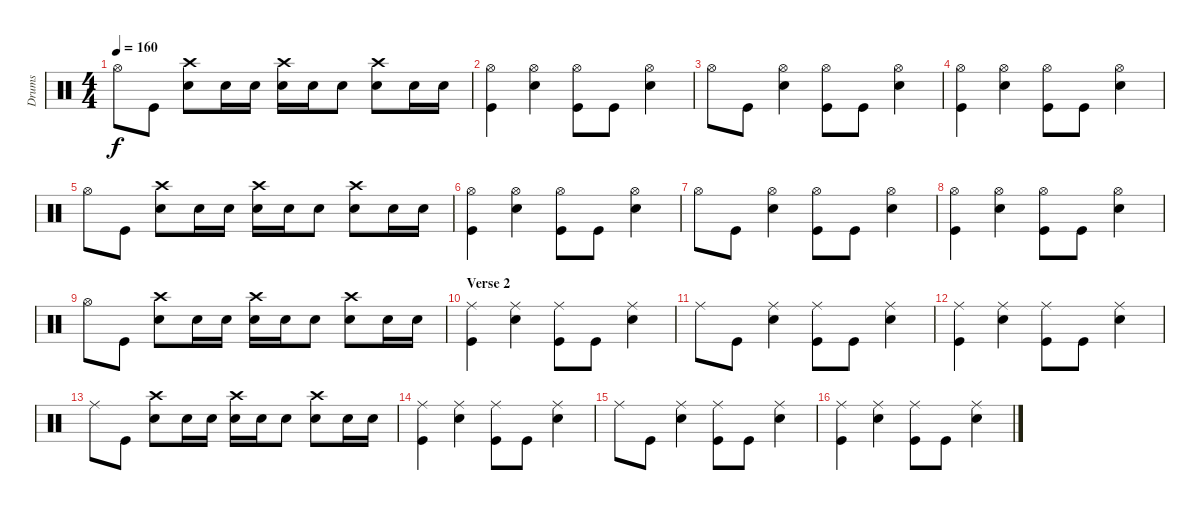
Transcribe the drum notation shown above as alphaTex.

\track ("Drums" "Drums") {instrument percussion}
\staff {score}
\articulation defaults
\ts (4 4)
\tempo 160
\clef neutral
\ks c "Hi-Hat (open)".8{dy f} "Kick (hit)".8
("Electric Snare (hit)" "Crash high (hit)").8 "Electric Snare (hit)".16 "Electric Snare (hit)".16 ("Electric Snare (hit)" "Crash high (hit)").16 "Electric Snare (hit)".16 "Electric Snare (hit)".8 ("Electric Snare (hit)" "Crash high (hit)").8 "Electric Snare (hit)".16 "Electric Snare (hit)".16 |
("Hi-Hat (open)" "Kick (hit)").4 ("Hi-Hat (open)" "Electric Snare (hit)").4 ("Hi-Hat (open)" "Kick (hit)").8 "Kick (hit)".8 ("Hi-Hat (open)" "Electric Snare (hit)").4 |
"Hi-Hat (open)".8 "Kick (hit)".8 ("Hi-Hat (open)" "Electric Snare (hit)").4 ("Hi-Hat (open)" "Kick (hit)").8 "Kick (hit)".8 ("Hi-Hat (open)" "Electric Snare (hit)").4 |
("Hi-Hat (open)" "Kick (hit)").4 ("Hi-Hat (open)" "Electric Snare (hit)").4 ("Hi-Hat (open)" "Kick (hit)").8 "Kick (hit)".8 ("Hi-Hat (open)" "Electric Snare (hit)").4 |
"Hi-Hat (open)".8 "Kick (hit)".8 ("Electric Snare (hit)" "Crash high (hit)").8 "Electric Snare (hit)".16 "Electric Snare (hit)".16 ("Electric Snare (hit)" "Crash high (hit)").16 "Electric Snare (hit)".16 "Electric Snare (hit)".8 ("Electric Snare (hit)" "Crash high (hit)").8 "Electric Snare (hit)".16 "Electric Snare (hit)".16 |
("Hi-Hat (open)" "Kick (hit)").4 ("Hi-Hat (open)" "Electric Snare (hit)").4 ("Hi-Hat (open)" "Kick (hit)").8 "Kick (hit)".8 ("Hi-Hat (open)" "Electric Snare (hit)").4 |
"Hi-Hat (open)".8 "Kick (hit)".8 ("Hi-Hat (open)" "Electric Snare (hit)").4 ("Hi-Hat (open)" "Kick (hit)").8 "Kick (hit)".8 ("Hi-Hat (open)" "Electric Snare (hit)").4 |
("Hi-Hat (open)" "Kick (hit)").4 ("Hi-Hat (open)" "Electric Snare (hit)").4 ("Hi-Hat (open)" "Kick (hit)").8 "Kick (hit)".8 ("Hi-Hat (open)" "Electric Snare (hit)").4 |
"Hi-Hat (open)".8 "Kick (hit)".8 ("Electric Snare (hit)" "Crash high (hit)").8 "Electric Snare (hit)".16 "Electric Snare (hit)".16 ("Electric Snare (hit)" "Crash high (hit)").16 "Electric Snare (hit)".16 "Electric Snare (hit)".8 ("Electric Snare (hit)" "Crash high (hit)").8 "Electric Snare (hit)".16 "Electric Snare (hit)".16 |
\section ("" "Verse 2")
("Ride (middle)" "Kick (hit)").4 ("Ride (middle)" "Electric Snare (hit)").4 ("Ride (middle)" "Kick (hit)").8 "Kick (hit)".8 ("Ride (middle)" "Electric Snare (hit)").4 |
"Ride (middle)".8 "Kick (hit)".8 ("Ride (middle)" "Electric Snare (hit)").4 ("Ride (middle)" "Kick (hit)").8 "Kick (hit)".8 ("Ride (middle)" "Electric Snare (hit)").4 |
("Ride (middle)" "Kick (hit)").4 ("Ride (middle)" "Electric Snare (hit)").4 ("Ride (middle)" "Kick (hit)").8 "Kick (hit)".8 ("Ride (middle)" "Electric Snare (hit)").4 |
"Ride (middle)".8 "Kick (hit)".8 ("Electric Snare (hit)" "Crash high (hit)").8 "Electric Snare (hit)".16 "Electric Snare (hit)".16 ("Electric Snare (hit)" "Crash high (hit)").16 "Electric Snare (hit)".16 "Electric Snare (hit)".8 ("Electric Snare (hit)" "Crash high (hit)").8 "Electric Snare (hit)".16 "Electric Snare (hit)".16 |
("Ride (middle)" "Kick (hit)").4 ("Ride (middle)" "Electric Snare (hit)").4 ("Ride (middle)" "Kick (hit)").8 "Kick (hit)".8 ("Ride (middle)" "Electric Snare (hit)").4 |
"Ride (middle)".8 "Kick (hit)".8 ("Ride (middle)" "Electric Snare (hit)").4 ("Ride (middle)" "Kick (hit)").8 "Kick (hit)".8 ("Ride (middle)" "Electric Snare (hit)").4 |
("Ride (middle)" "Kick (hit)").4 ("Ride (middle)" "Electric Snare (hit)").4 ("Ride (middle)" "Kick (hit)").8 "Kick (hit)".8 ("Ride (middle)" "Electric Snare (hit)").4
